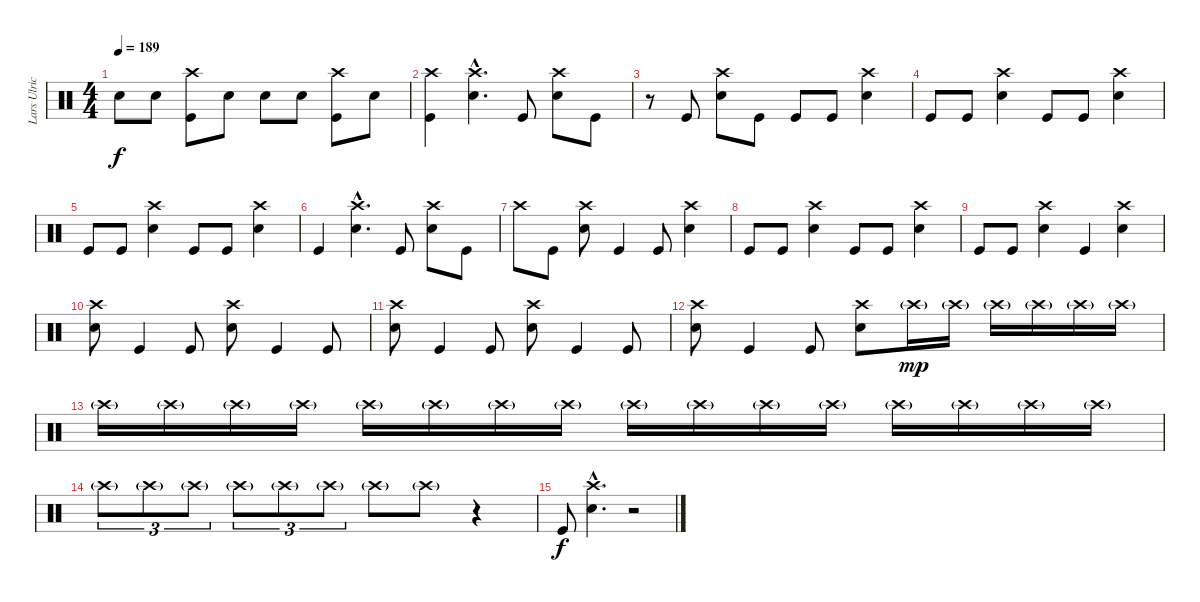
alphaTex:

\track ("Lars Ulrich" "Lars Ulric") {instrument percussion}
\staff {score}
\articulation defaults
\ts (4 4)
\tempo 189
\clef neutral
\ks c "Electric Snare (hit)".8{dy f} "Electric Snare (hit)".8
("Crash high (hit)" "Kick (hit)").8 "Electric Snare (hit)".8 "Electric Snare (hit)".8 "Electric Snare (hit)".8 ("Crash high (hit)" "Kick (hit)").8 "Electric Snare (hit)".8 |
("Crash high (hit)" "Kick (hit)").4 ("Crash high (hit)"{hac} "Electric Snare (hit)"{hac}).4{d} "Kick (hit)".8 ("Crash high (hit)" "Electric Snare (hit)").8 "Kick (hit)".8 |
r.8 "Kick (hit)".8 ("Crash high (hit)" "Electric Snare (hit)").8 "Kick (hit)".8 "Kick (hit)".8 "Kick (hit)".8 ("Crash high (hit)" "Electric Snare (hit)").4 |
"Kick (hit)".8 "Kick (hit)".8 ("Crash high (hit)" "Electric Snare (hit)").4 "Kick (hit)".8 "Kick (hit)".8 ("Crash high (hit)" "Electric Snare (hit)").4 |
"Kick (hit)".8 "Kick (hit)".8 ("Crash high (hit)" "Electric Snare (hit)").4 "Kick (hit)".8 "Kick (hit)".8 ("Crash high (hit)" "Electric Snare (hit)").4 |
"Kick (hit)".4 ("Crash high (hit)"{hac} "Electric Snare (hit)"{hac}).4{d} "Kick (hit)".8 ("Crash high (hit)" "Electric Snare (hit)").8 "Kick (hit)".8 |
"Crash high (hit)".8 "Kick (hit)".8 ("Crash high (hit)" "Electric Snare (hit)").8 "Kick (hit)".4 "Kick (hit)".8 ("Crash high (hit)" "Electric Snare (hit)").4 |
"Kick (hit)".8 "Kick (hit)".8 ("Crash high (hit)" "Electric Snare (hit)").4 "Kick (hit)".8 "Kick (hit)".8 ("Crash high (hit)" "Electric Snare (hit)").4 |
"Kick (hit)".8 "Kick (hit)".8 ("Crash high (hit)" "Electric Snare (hit)").4 "Kick (hit)".4 ("Crash high (hit)" "Electric Snare (hit)").4 |
("Crash high (hit)" "Electric Snare (hit)").8 "Kick (hit)".4 "Kick (hit)".8 ("Crash high (hit)" "Electric Snare (hit)").8 "Kick (hit)".4 "Kick (hit)".8 |
("Crash high (hit)" "Electric Snare (hit)").8 "Kick (hit)".4 "Kick (hit)".8 ("Crash high (hit)" "Electric Snare (hit)").8 "Kick (hit)".4 "Kick (hit)".8 |
("Crash high (hit)" "Electric Snare (hit)").8 "Kick (hit)".4 "Kick (hit)".8 ("Crash high (hit)" "Electric Snare (hit)").8 "Crash high (hit)"{g}.16{dy mp} "Crash high (hit)"{g}.16 "Crash high (hit)"{g}.16 "Crash high (hit)"{g}.16 "Crash high (hit)"{g}.16 "Crash high (hit)"{g}.16 |
"Crash high (hit)"{g}.16 "Crash high (hit)"{g}.16 "Crash high (hit)"{g}.16 "Crash high (hit)"{g}.16 "Crash high (hit)"{g}.16 "Crash high (hit)"{g}.16 "Crash high (hit)"{g}.16 "Crash high (hit)"{g}.16 "Crash high (hit)"{g}.16 "Crash high (hit)"{g}.16 "Crash high (hit)"{g}.16 "Crash high (hit)"{g}.16 "Crash high (hit)"{g}.16 "Crash high (hit)"{g}.16 "Crash high (hit)"{g}.16 "Crash high (hit)"{g}.16 |
"Crash high (hit)"{g}.8{tu (3 2)} "Crash high (hit)"{g}.8{tu (3 2)} "Crash high (hit)"{g}.8{tu (3 2)} "Crash high (hit)"{g}.8{tu (3 2)} "Crash high (hit)"{g}.8{tu (3 2)} "Crash high (hit)"{g}.8{tu (3 2)} "Crash high (hit)"{g}.8 "Crash high (hit)"{g}.8 r.4 |
"Kick (hit)".8{dy f} ("Crash high (hit)"{hac} "Electric Snare (hit)"{hac}).4{d} r.2
